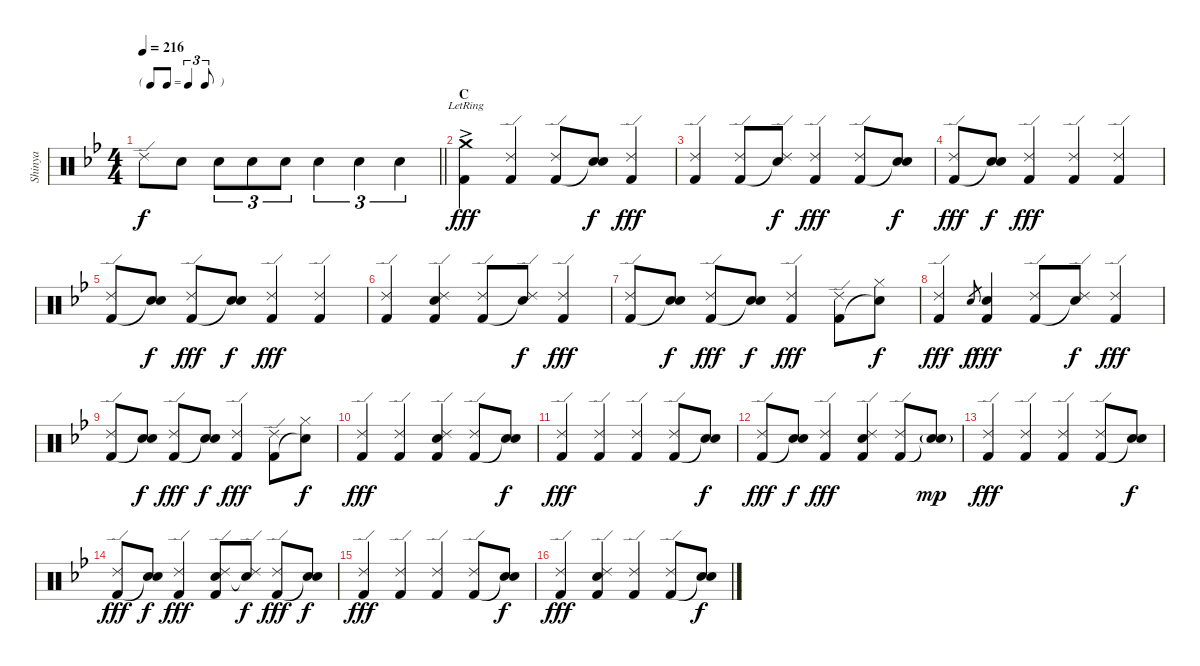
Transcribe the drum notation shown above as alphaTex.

\track ("Shinya" "Shinya") {instrument percussion}
\staff {score}
\articulation defaults
\ts (4 4)
\tf triplet8th
\tempo 216
\clef neutral
\barLineRight lightlight
\ks bb "Ride (edge) 2"{t}.8{dy f} "Electric Snare (hit)".8 "Electric Snare (hit)".8{tu (3 2)} "Electric Snare (hit)".8{tu (3 2)} "Electric Snare (hit)".8{tu (3 2)} "Electric Snare (hit)".4{tu (3 2)} "Electric Snare (hit)".4{tu (3 2)} "Electric Snare (hit)".4{tu (3 2)}
|
\section ("" "C")
("Crash medium (hit)"{ac lr} "Kick (hit) 2").4{dy fff} ("Ride (edge) 2" "Kick (hit) 2").4 ("Ride (edge) 2" "Kick (hit) 2").8 ("Electric Snare (hit)" "Snare (hit)"{t}).8{dy f} ("Ride (edge) 2" "Kick (hit) 2").4{dy fff} |
("Ride (edge) 2" "Kick (hit) 2").4 ("Ride (edge) 2" "Kick (hit) 2").8 ("Ride (edge) 2" "Snare (hit)"{t}).8{dy f} ("Ride (edge) 2" "Kick (hit) 2").4{dy fff} ("Ride (edge) 2" "Kick (hit) 2").8 ("Electric Snare (hit)" "Snare (hit)"{t}).8{dy f} |
("Ride (edge) 2" "Kick (hit) 2").8{dy fff} ("Electric Snare (hit)" "Snare (hit)"{t}).8{dy f} ("Ride (edge) 2" "Kick (hit) 2").4{dy fff} ("Ride (edge) 2" "Kick (hit) 2").4 ("Ride (edge) 2" "Kick (hit) 2").4 |
("Ride (edge) 2" "Kick (hit) 2").8 ("Electric Snare (hit)" "Snare (hit)"{t}).8{dy f} ("Ride (edge) 2" "Kick (hit) 2").8{dy fff} ("Electric Snare (hit)" "Snare (hit)"{t}).8{dy f} ("Ride (edge) 2" "Kick (hit) 2").4{dy fff} ("Ride (edge) 2" "Kick (hit) 2").4 |
("Ride (edge) 2" "Kick (hit) 2").4 ("Ride (edge) 2" "Electric Snare (hit)" "Kick (hit) 2").4 ("Ride (edge) 2" "Kick (hit) 2").8 ("Ride (edge) 2" "Snare (hit)"{t}).8{dy f} ("Ride (edge) 2" "Kick (hit) 2").4{dy fff} |
("Ride (edge) 2" "Kick (hit) 2").8 ("Electric Snare (hit)" "Snare (hit)"{t}).8{dy f} ("Ride (edge) 2" "Kick (hit) 2").8{dy fff} ("Electric Snare (hit)" "Snare (hit)"{t}).8{dy f} ("Ride (edge) 2" "Kick (hit) 2").4{dy fff} ("Ride (edge) 2" "Kick (hit) 2").8 ("Hi-Hat (closed)" "Snare (hit)"{t}).8{dy f} |
("Ride (edge) 2" "Kick (hit) 2").4{dy fff} "Electric Snare (hit)".8{gr dy f} ("Electric Snare (hit)" "Kick (hit) 2").4{dy fff} ("Ride (edge) 2" "Kick (hit) 2").8 ("Ride (edge) 2" "Snare (hit)"{t}).8{dy f} ("Ride (edge) 2" "Kick (hit) 2").4{dy fff} |
("Ride (edge) 2" "Kick (hit) 2").8 ("Electric Snare (hit)" "Snare (hit)"{t}).8{dy f} ("Ride (edge) 2" "Kick (hit) 2").8{dy fff} ("Electric Snare (hit)" "Snare (hit)"{t}).8{dy f} ("Ride (edge) 2" "Kick (hit) 2").4{dy fff} ("Ride (edge) 2" "Kick (hit) 2").8 ("Hi-Hat (closed)" "Snare (hit)"{t}).8{dy f} |
("Ride (edge) 2" "Kick (hit) 2").4{dy fff} ("Ride (edge) 2" "Kick (hit) 2").4 ("Ride (edge) 2" "Electric Snare (hit)" "Kick (hit) 2").4 ("Ride (edge) 2" "Kick (hit) 2").8 ("Electric Snare (hit)" "Snare (hit)"{t}).8{dy f} |
("Ride (edge) 2" "Kick (hit) 2").4{dy fff} ("Ride (edge) 2" "Kick (hit) 2").4 ("Ride (edge) 2" "Kick (hit) 2").4 ("Ride (edge) 2" "Kick (hit) 2").8 ("Electric Snare (hit)" "Snare (hit)"{t}).8{dy f} |
("Ride (edge) 2" "Kick (hit) 2").8{dy fff} ("Electric Snare (hit)" "Snare (hit)"{t}).8{dy f} ("Ride (edge) 2" "Kick (hit) 2").4{dy fff} ("Ride (edge) 2" "Electric Snare (hit)" "Kick (hit) 2").4 ("Ride (edge) 2" "Kick (hit) 2").8 ("Electric Snare (hit)"{g} "Snare (hit)"{t}).8{dy mp} |
("Ride (edge) 2" "Kick (hit) 2").4{dy fff} ("Ride (edge) 2" "Kick (hit) 2").4 ("Ride (edge) 2" "Kick (hit) 2").4 ("Ride (edge) 2" "Kick (hit) 2").8 ("Electric Snare (hit)" "Snare (hit)"{t}).8{dy f} |
("Ride (edge) 2" "Kick (hit) 2").8{dy fff} ("Electric Snare (hit)" "Snare (hit)"{t}).8{dy f} ("Ride (edge) 2" "Kick (hit) 2").4{dy fff} ("Ride (edge) 2" "Electric Snare (hit)" "Kick (hit) 2").8 ("Ride (edge) 2" "Snare (hit)"{t}).8{dy f} ("Ride (edge) 2" "Kick (hit) 2").8{dy fff} ("Electric Snare (hit)" "Snare (hit)"{t}).8{dy f} |
("Ride (edge) 2" "Kick (hit) 2").4{dy fff} ("Ride (edge) 2" "Kick (hit) 2").4 ("Ride (edge) 2" "Kick (hit) 2").4 ("Ride (edge) 2" "Kick (hit) 2").8 ("Electric Snare (hit)" "Snare (hit)"{t}).8{dy f} |
("Ride (edge) 2" "Kick (hit) 2").4{dy fff} ("Ride (edge) 2" "Electric Snare (hit)" "Kick (hit) 2").4 ("Ride (edge) 2" "Kick (hit) 2").4 ("Ride (edge) 2" "Kick (hit) 2").8 ("Electric Snare (hit)" "Snare (hit)"{t}).8{dy f}
